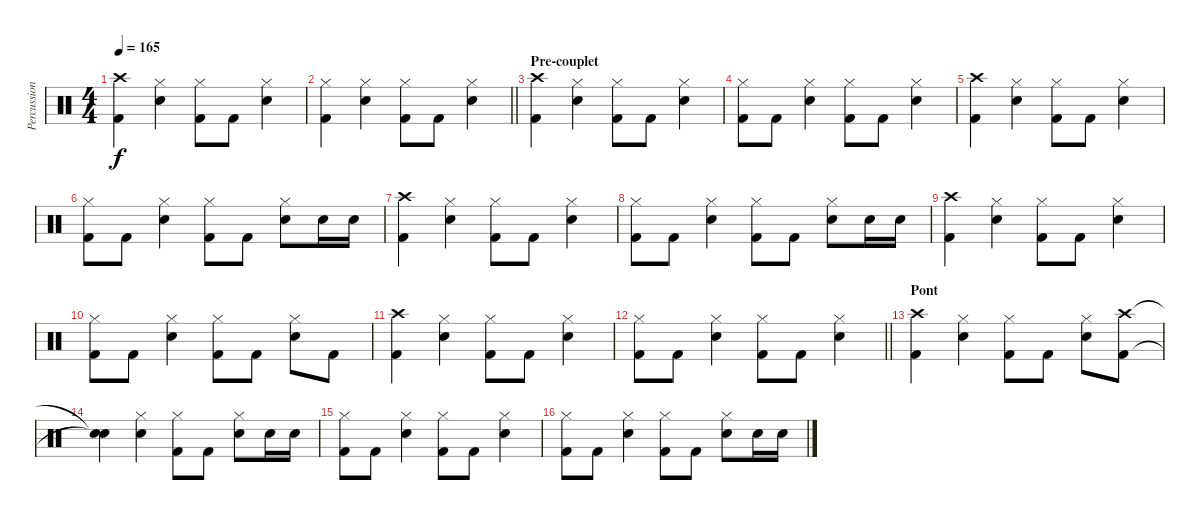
\track ("Percussions" "Percussion") {instrument percussion}
\staff {score}
\articulation defaults
\ts (4 4)
\tempo 165
\clef neutral
\ks c
("Crash high (hit)" "Kick (hit) 2").4{dy f} ("Hi-Hat (closed)" "Electric Snare (hit)").4 ("Hi-Hat (closed)" "Kick (hit) 2").8 "Kick (hit) 2".8 ("Hi-Hat (closed)" "Electric Snare (hit)").4 |
\barLineRight lightlight
("Hi-Hat (closed)" "Kick (hit) 2").4 ("Hi-Hat (closed)" "Electric Snare (hit)").4 ("Hi-Hat (closed)" "Kick (hit) 2").8 "Kick (hit) 2".8 ("Hi-Hat (closed)" "Electric Snare (hit)").4 |
\section ("" "Pre-couplet")
("Crash high (hit)" "Kick (hit) 2").4 ("Hi-Hat (closed)" "Electric Snare (hit)").4 ("Hi-Hat (closed)" "Kick (hit) 2").8 "Kick (hit) 2".8 ("Hi-Hat (closed)" "Electric Snare (hit)").4 |
("Hi-Hat (closed)" "Kick (hit) 2").8 "Kick (hit) 2".8 ("Hi-Hat (closed)" "Electric Snare (hit)").4 ("Hi-Hat (closed)" "Kick (hit) 2").8 "Kick (hit) 2".8 ("Hi-Hat (closed)" "Electric Snare (hit)").4 |
("Crash high (hit)" "Kick (hit) 2").4 ("Hi-Hat (closed)" "Electric Snare (hit)").4 ("Hi-Hat (closed)" "Kick (hit) 2").8 "Kick (hit) 2".8 ("Hi-Hat (closed)" "Electric Snare (hit)").4 |
("Hi-Hat (closed)" "Kick (hit) 2").8 "Kick (hit) 2".8 ("Hi-Hat (closed)" "Electric Snare (hit)").4 ("Hi-Hat (closed)" "Kick (hit) 2").8 "Kick (hit) 2".8 ("Hi-Hat (closed)" "Electric Snare (hit)").8 "Electric Snare (hit)".16 "Electric Snare (hit)".16 |
("Crash high (hit)" "Kick (hit) 2").4 ("Hi-Hat (closed)" "Electric Snare (hit)").4 ("Hi-Hat (closed)" "Kick (hit) 2").8 "Kick (hit) 2".8 ("Hi-Hat (closed)" "Electric Snare (hit)").4 |
("Hi-Hat (closed)" "Kick (hit) 2").8 "Kick (hit) 2".8 ("Hi-Hat (closed)" "Electric Snare (hit)").4 ("Hi-Hat (closed)" "Kick (hit) 2").8 "Kick (hit) 2".8 ("Hi-Hat (closed)" "Electric Snare (hit)").8 "Electric Snare (hit)".16 "Electric Snare (hit)".16 |
("Crash high (hit)" "Kick (hit) 2").4 ("Hi-Hat (closed)" "Electric Snare (hit)").4 ("Hi-Hat (closed)" "Kick (hit) 2").8 "Kick (hit) 2".8 ("Hi-Hat (closed)" "Electric Snare (hit)").4 |
("Hi-Hat (closed)" "Kick (hit) 2").8 "Kick (hit) 2".8 ("Hi-Hat (closed)" "Electric Snare (hit)").4 ("Hi-Hat (closed)" "Kick (hit) 2").8 "Kick (hit) 2".8 ("Hi-Hat (closed)" "Electric Snare (hit)").8 "Kick (hit) 2".8 |
("Crash high (hit)" "Kick (hit) 2").4 ("Hi-Hat (closed)" "Electric Snare (hit)").4 ("Hi-Hat (closed)" "Kick (hit) 2").8 "Kick (hit) 2".8 ("Hi-Hat (closed)" "Electric Snare (hit)").4 |
\barLineRight lightlight
("Hi-Hat (closed)" "Kick (hit) 2").8 "Kick (hit) 2".8 ("Hi-Hat (closed)" "Electric Snare (hit)").4 ("Hi-Hat (closed)" "Kick (hit) 2").8 "Kick (hit) 2".8 ("Hi-Hat (closed)" "Electric Snare (hit)").4 |
\section ("" "Pont")
("Crash high (hit)" "Kick (hit) 2").4 ("Hi-Hat (closed)" "Electric Snare (hit)").4 ("Hi-Hat (closed)" "Kick (hit) 2").8 "Kick (hit) 2".8 ("Hi-Hat (closed)" "Electric Snare (hit)").8 ("Crash high (hit)" "Kick (hit) 2").8 |
("Snare (hit)"{t} "Snare (hit)"{t}).4 ("Hi-Hat (closed)" "Electric Snare (hit)").4 ("Hi-Hat (closed)" "Kick (hit) 2").8 "Kick (hit) 2".8 ("Hi-Hat (closed)" "Electric Snare (hit)").8 "Electric Snare (hit)".16 "Electric Snare (hit)".16 |
("Hi-Hat (closed)" "Kick (hit) 2").8 "Kick (hit) 2".8 ("Hi-Hat (closed)" "Electric Snare (hit)").4 ("Hi-Hat (closed)" "Kick (hit) 2").8 "Kick (hit) 2".8 ("Hi-Hat (closed)" "Electric Snare (hit)").4 |
("Hi-Hat (closed)" "Kick (hit) 2").8 "Kick (hit) 2".8 ("Hi-Hat (closed)" "Electric Snare (hit)").4 ("Hi-Hat (closed)" "Kick (hit) 2").8 "Kick (hit) 2".8 ("Hi-Hat (closed)" "Electric Snare (hit)").8 "Electric Snare (hit)".16 "Electric Snare (hit)".16
